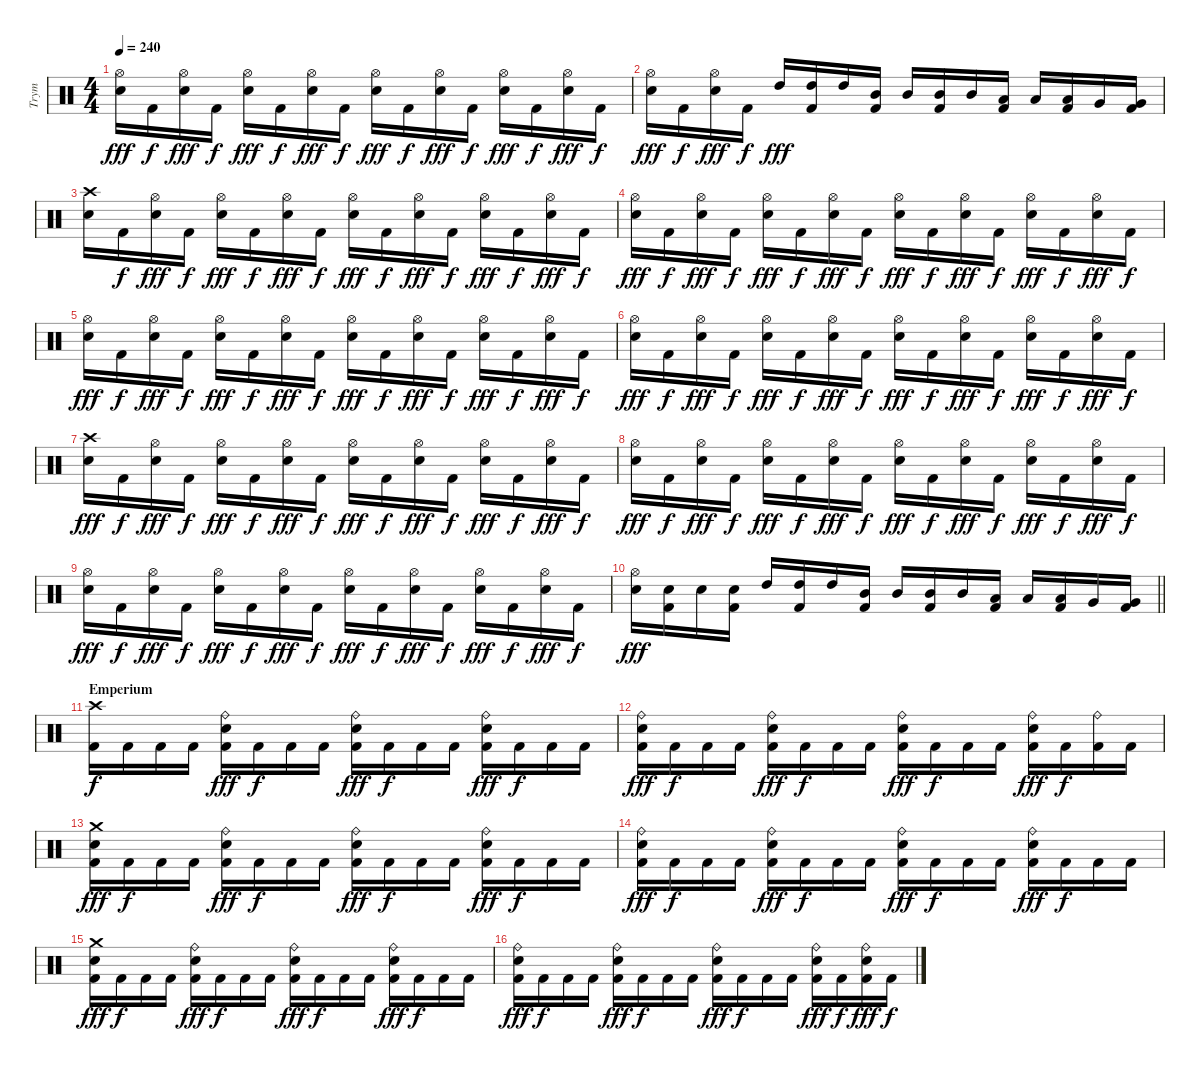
\track ("Trym" "Trym") {instrument percussion}
\staff {score}
\articulation defaults
\ts (4 4)
\tempo 240
\clef neutral
\ks c
("Hi-Hat (open)" "Electric Snare (hit)").16{dy fff} "Kick (hit) 2".16{dy f} ("Hi-Hat (open)" "Electric Snare (hit)").16{dy fff} "Kick (hit) 2".16{dy f} ("Hi-Hat (open)" "Electric Snare (hit)").16{dy fff} "Kick (hit) 2".16{dy f} ("Hi-Hat (open)" "Electric Snare (hit)").16{dy fff} "Kick (hit) 2".16{dy f} ("Hi-Hat (open)" "Electric Snare (hit)").16{dy fff} "Kick (hit) 2".16{dy f} ("Hi-Hat (open)" "Electric Snare (hit)").16{dy fff} "Kick (hit) 2".16{dy f} ("Hi-Hat (open)" "Electric Snare (hit)").16{dy fff} "Kick (hit) 2".16{dy f} ("Hi-Hat (open)" "Electric Snare (hit)").16{dy fff} "Kick (hit) 2".16{dy f} |
("Hi-Hat (open)" "Electric Snare (hit)").16{dy fff} "Kick (hit) 2".16{dy f} ("Hi-Hat (open)" "Electric Snare (hit)").16{dy fff} "Kick (hit) 2".16{dy f} "High Tom (hit)".16{dy fff} ("High Tom (hit)" "Kick (hit) 2").16 "High Tom (hit)".16 ("Mid Tom (hit)" "Kick (hit) 2").16 "Mid Tom (hit)".16 ("Mid Tom (hit)" "Kick (hit) 2").16 "Mid Tom (hit)".16 ("Low Tom (hit)" "Kick (hit) 2").16 "Low Tom (hit)".16 ("Low Tom (hit)" "Kick (hit) 2").16 "Very Low Tom (hit)".16 ("Very Low Tom (hit)" "Kick (hit) 2").16 |
("Crash high (hit)" "Electric Snare (hit)").16 "Kick (hit) 2".16{dy f} ("Hi-Hat (open)" "Electric Snare (hit)").16{dy fff} "Kick (hit) 2".16{dy f} ("Hi-Hat (open)" "Electric Snare (hit)").16{dy fff} "Kick (hit) 2".16{dy f} ("Hi-Hat (open)" "Electric Snare (hit)").16{dy fff} "Kick (hit) 2".16{dy f} ("Hi-Hat (open)" "Electric Snare (hit)").16{dy fff} "Kick (hit) 2".16{dy f} ("Hi-Hat (open)" "Electric Snare (hit)").16{dy fff} "Kick (hit) 2".16{dy f} ("Hi-Hat (open)" "Electric Snare (hit)").16{dy fff} "Kick (hit) 2".16{dy f} ("Hi-Hat (open)" "Electric Snare (hit)").16{dy fff} "Kick (hit) 2".16{dy f} |
("Hi-Hat (open)" "Electric Snare (hit)").16{dy fff} "Kick (hit) 2".16{dy f} ("Hi-Hat (open)" "Electric Snare (hit)").16{dy fff} "Kick (hit) 2".16{dy f} ("Hi-Hat (open)" "Electric Snare (hit)").16{dy fff} "Kick (hit) 2".16{dy f} ("Hi-Hat (open)" "Electric Snare (hit)").16{dy fff} "Kick (hit) 2".16{dy f} ("Hi-Hat (open)" "Electric Snare (hit)").16{dy fff} "Kick (hit) 2".16{dy f} ("Hi-Hat (open)" "Electric Snare (hit)").16{dy fff} "Kick (hit) 2".16{dy f} ("Hi-Hat (open)" "Electric Snare (hit)").16{dy fff} "Kick (hit) 2".16{dy f} ("Hi-Hat (open)" "Electric Snare (hit)").16{dy fff} "Kick (hit) 2".16{dy f} |
("Hi-Hat (open)" "Electric Snare (hit)").16{dy fff} "Kick (hit) 2".16{dy f} ("Hi-Hat (open)" "Electric Snare (hit)").16{dy fff} "Kick (hit) 2".16{dy f} ("Hi-Hat (open)" "Electric Snare (hit)").16{dy fff} "Kick (hit) 2".16{dy f} ("Hi-Hat (open)" "Electric Snare (hit)").16{dy fff} "Kick (hit) 2".16{dy f} ("Hi-Hat (open)" "Electric Snare (hit)").16{dy fff} "Kick (hit) 2".16{dy f} ("Hi-Hat (open)" "Electric Snare (hit)").16{dy fff} "Kick (hit) 2".16{dy f} ("Hi-Hat (open)" "Electric Snare (hit)").16{dy fff} "Kick (hit) 2".16{dy f} ("Hi-Hat (open)" "Electric Snare (hit)").16{dy fff} "Kick (hit) 2".16{dy f} |
("Hi-Hat (open)" "Electric Snare (hit)").16{dy fff} "Kick (hit) 2".16{dy f} ("Hi-Hat (open)" "Electric Snare (hit)").16{dy fff} "Kick (hit) 2".16{dy f} ("Hi-Hat (open)" "Electric Snare (hit)").16{dy fff} "Kick (hit) 2".16{dy f} ("Hi-Hat (open)" "Electric Snare (hit)").16{dy fff} "Kick (hit) 2".16{dy f} ("Hi-Hat (open)" "Electric Snare (hit)").16{dy fff} "Kick (hit) 2".16{dy f} ("Hi-Hat (open)" "Electric Snare (hit)").16{dy fff} "Kick (hit) 2".16{dy f} ("Hi-Hat (open)" "Electric Snare (hit)").16{dy fff} "Kick (hit) 2".16{dy f} ("Hi-Hat (open)" "Electric Snare (hit)").16{dy fff} "Kick (hit) 2".16{dy f} |
("Crash high (hit)" "Electric Snare (hit)").16{dy fff} "Kick (hit) 2".16{dy f} ("Hi-Hat (open)" "Electric Snare (hit)").16{dy fff} "Kick (hit) 2".16{dy f} ("Hi-Hat (open)" "Electric Snare (hit)").16{dy fff} "Kick (hit) 2".16{dy f} ("Hi-Hat (open)" "Electric Snare (hit)").16{dy fff} "Kick (hit) 2".16{dy f} ("Hi-Hat (open)" "Electric Snare (hit)").16{dy fff} "Kick (hit) 2".16{dy f} ("Hi-Hat (open)" "Electric Snare (hit)").16{dy fff} "Kick (hit) 2".16{dy f} ("Hi-Hat (open)" "Electric Snare (hit)").16{dy fff} "Kick (hit) 2".16{dy f} ("Hi-Hat (open)" "Electric Snare (hit)").16{dy fff} "Kick (hit) 2".16{dy f} |
("Hi-Hat (open)" "Electric Snare (hit)").16{dy fff} "Kick (hit) 2".16{dy f} ("Hi-Hat (open)" "Electric Snare (hit)").16{dy fff} "Kick (hit) 2".16{dy f} ("Hi-Hat (open)" "Electric Snare (hit)").16{dy fff} "Kick (hit) 2".16{dy f} ("Hi-Hat (open)" "Electric Snare (hit)").16{dy fff} "Kick (hit) 2".16{dy f} ("Hi-Hat (open)" "Electric Snare (hit)").16{dy fff} "Kick (hit) 2".16{dy f} ("Hi-Hat (open)" "Electric Snare (hit)").16{dy fff} "Kick (hit) 2".16{dy f} ("Hi-Hat (open)" "Electric Snare (hit)").16{dy fff} "Kick (hit) 2".16{dy f} ("Hi-Hat (open)" "Electric Snare (hit)").16{dy fff} "Kick (hit) 2".16{dy f} |
("Hi-Hat (open)" "Electric Snare (hit)").16{dy fff} "Kick (hit) 2".16{dy f} ("Hi-Hat (open)" "Electric Snare (hit)").16{dy fff} "Kick (hit) 2".16{dy f} ("Hi-Hat (open)" "Electric Snare (hit)").16{dy fff} "Kick (hit) 2".16{dy f} ("Hi-Hat (open)" "Electric Snare (hit)").16{dy fff} "Kick (hit) 2".16{dy f} ("Hi-Hat (open)" "Electric Snare (hit)").16{dy fff} "Kick (hit) 2".16{dy f} ("Hi-Hat (open)" "Electric Snare (hit)").16{dy fff} "Kick (hit) 2".16{dy f} ("Hi-Hat (open)" "Electric Snare (hit)").16{dy fff} "Kick (hit) 2".16{dy f} ("Hi-Hat (open)" "Electric Snare (hit)").16{dy fff} "Kick (hit) 2".16{dy f} |
\barLineRight lightlight
("Hi-Hat (open)" "Electric Snare (hit)").16{dy fff} ("Electric Snare (hit)" "Kick (hit) 2").16 "Electric Snare (hit)".16 ("Electric Snare (hit)" "Kick (hit) 2").16 "High Tom (hit)".16 ("High Tom (hit)" "Kick (hit) 2").16 "High Tom (hit)".16 ("Mid Tom (hit)" "Kick (hit) 2").16 "Mid Tom (hit)".16 ("Mid Tom (hit)" "Kick (hit) 2").16 "Mid Tom (hit)".16 ("Low Tom (hit)" "Kick (hit) 2").16 "Low Tom (hit)".16 ("Low Tom (hit)" "Kick (hit) 2").16 "Very Low Tom (hit)".16 ("Very Low Tom (hit)" "Kick (hit) 2").16 |
\section ("" "Emperium")
("Crash high (hit)" "Kick (hit) 2").16{dy f} "Kick (hit) 2".16 "Kick (hit) 2".16 "Kick (hit) 2".16 ("Ride (bell)" "Electric Snare (hit)" "Kick (hit) 2").16{dy fff} "Kick (hit) 2".16{dy f} "Kick (hit) 2".16 "Kick (hit) 2".16 ("Ride (bell)" "Electric Snare (hit)" "Kick (hit) 2").16{dy fff} "Kick (hit) 2".16{dy f} "Kick (hit) 2".16 "Kick (hit) 2".16 ("Ride (bell)" "Electric Snare (hit)" "Kick (hit) 2").16{dy fff} "Kick (hit) 2".16{dy f} "Kick (hit) 2".16 "Kick (hit) 2".16 |
("Ride (bell)" "Electric Snare (hit)" "Kick (hit) 2").16{dy fff} "Kick (hit) 2".16{dy f} "Kick (hit) 2".16 "Kick (hit) 2".16 ("Ride (bell)" "Electric Snare (hit)" "Kick (hit) 2").16{dy fff} "Kick (hit) 2".16{dy f} "Kick (hit) 2".16 "Kick (hit) 2".16 ("Ride (bell)" "Electric Snare (hit)" "Kick (hit) 2").16{dy fff} "Kick (hit) 2".16{dy f} "Kick (hit) 2".16 "Kick (hit) 2".16 ("Ride (bell)" "Electric Snare (hit)" "Kick (hit) 2").16{dy fff} "Kick (hit) 2".16{dy f} ("Ride (bell)" "Kick (hit) 2").16 "Kick (hit) 2".16 |
("Crash medium (hit)" "Electric Snare (hit)" "Kick (hit) 2").16{dy fff} "Kick (hit) 2".16{dy f} "Kick (hit) 2".16 "Kick (hit) 2".16 ("Ride (bell)" "Electric Snare (hit)" "Kick (hit) 2").16{dy fff} "Kick (hit) 2".16{dy f} "Kick (hit) 2".16 "Kick (hit) 2".16 ("Ride (bell)" "Electric Snare (hit)" "Kick (hit) 2").16{dy fff} "Kick (hit) 2".16{dy f} "Kick (hit) 2".16 "Kick (hit) 2".16 ("Ride (bell)" "Electric Snare (hit)" "Kick (hit) 2").16{dy fff} "Kick (hit) 2".16{dy f} "Kick (hit) 2".16 "Kick (hit) 2".16 |
("Ride (bell)" "Electric Snare (hit)" "Kick (hit) 2").16{dy fff} "Kick (hit) 2".16{dy f} "Kick (hit) 2".16 "Kick (hit) 2".16 ("Ride (bell)" "Electric Snare (hit)" "Kick (hit) 2").16{dy fff} "Kick (hit) 2".16{dy f} "Kick (hit) 2".16 "Kick (hit) 2".16 ("Ride (bell)" "Electric Snare (hit)" "Kick (hit) 2").16{dy fff} "Kick (hit) 2".16{dy f} "Kick (hit) 2".16 "Kick (hit) 2".16 ("Ride (bell)" "Electric Snare (hit)" "Kick (hit) 2").16{dy fff} "Kick (hit) 2".16{dy f} "Kick (hit) 2".16 "Kick (hit) 2".16 |
("Crash medium (hit)" "Electric Snare (hit)" "Kick (hit) 2").16{dy fff} "Kick (hit) 2".16{dy f} "Kick (hit) 2".16 "Kick (hit) 2".16 ("Ride (bell)" "Electric Snare (hit)" "Kick (hit) 2").16{dy fff} "Kick (hit) 2".16{dy f} "Kick (hit) 2".16 "Kick (hit) 2".16 ("Ride (bell)" "Electric Snare (hit)" "Kick (hit) 2").16{dy fff} "Kick (hit) 2".16{dy f} "Kick (hit) 2".16 "Kick (hit) 2".16 ("Ride (bell)" "Electric Snare (hit)" "Kick (hit) 2").16{dy fff} "Kick (hit) 2".16{dy f} "Kick (hit) 2".16 "Kick (hit) 2".16 |
("Ride (bell)" "Electric Snare (hit)" "Kick (hit) 2").16{dy fff} "Kick (hit) 2".16{dy f} "Kick (hit) 2".16 "Kick (hit) 2".16 ("Ride (bell)" "Electric Snare (hit)" "Kick (hit) 2").16{dy fff} "Kick (hit) 2".16{dy f} "Kick (hit) 2".16 "Kick (hit) 2".16 ("Ride (bell)" "Electric Snare (hit)" "Kick (hit) 2").16{dy fff} "Kick (hit) 2".16{dy f} "Kick (hit) 2".16 "Kick (hit) 2".16 ("Ride (bell)" "Electric Snare (hit)" "Kick (hit) 2").16{dy fff} "Kick (hit) 2".16{dy f} ("Ride (bell)" "Electric Snare (hit)" "Kick (hit) 2").16{dy fff} "Kick (hit) 2".16{dy f}
